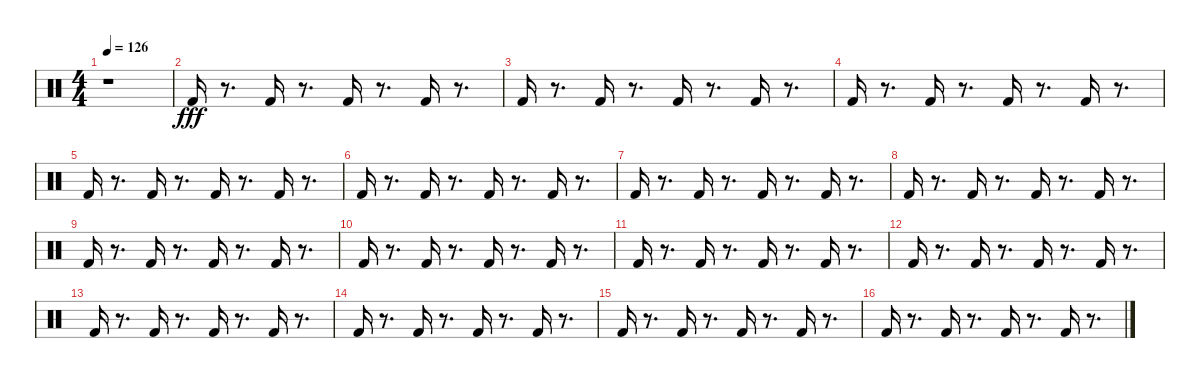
\track "" {instrument percussion}
\staff {score}
\articulation defaults
\ts (4 4)
\tempo 126
\clef neutral
\ks c
r.1{dy fff} |
"Kick (hit) 2".16 r.8{d} "Kick (hit) 2".16 r.8{d} "Kick (hit) 2".16 r.8{d} "Kick (hit) 2".16 r.8{d} |
"Kick (hit) 2".16 r.8{d} "Kick (hit) 2".16 r.8{d} "Kick (hit) 2".16 r.8{d} "Kick (hit) 2".16 r.8{d} |
"Kick (hit) 2".16 r.8{d} "Kick (hit) 2".16 r.8{d} "Kick (hit) 2".16 r.8{d} "Kick (hit) 2".16 r.8{d} |
"Kick (hit) 2".16 r.8{d} "Kick (hit) 2".16 r.8{d} "Kick (hit) 2".16 r.8{d} "Kick (hit) 2".16 r.8{d} |
"Kick (hit) 2".16 r.8{d} "Kick (hit) 2".16 r.8{d} "Kick (hit) 2".16 r.8{d} "Kick (hit) 2".16 r.8{d} |
"Kick (hit) 2".16 r.8{d} "Kick (hit) 2".16 r.8{d} "Kick (hit) 2".16 r.8{d} "Kick (hit) 2".16 r.8{d} |
"Kick (hit) 2".16 r.8{d} "Kick (hit) 2".16 r.8{d} "Kick (hit) 2".16 r.8{d} "Kick (hit) 2".16 r.8{d} |
"Kick (hit) 2".16 r.8{d} "Kick (hit) 2".16 r.8{d} "Kick (hit) 2".16 r.8{d} "Kick (hit) 2".16 r.8{d} |
"Kick (hit) 2".16 r.8{d} "Kick (hit) 2".16 r.8{d} "Kick (hit) 2".16 r.8{d} "Kick (hit) 2".16 r.8{d} |
"Kick (hit) 2".16 r.8{d} "Kick (hit) 2".16 r.8{d} "Kick (hit) 2".16 r.8{d} "Kick (hit) 2".16 r.8{d} |
"Kick (hit) 2".16 r.8{d} "Kick (hit) 2".16 r.8{d} "Kick (hit) 2".16 r.8{d} "Kick (hit) 2".16 r.8{d} |
"Kick (hit) 2".16 r.8{d} "Kick (hit) 2".16 r.8{d} "Kick (hit) 2".16 r.8{d} "Kick (hit) 2".16 r.8{d} |
"Kick (hit) 2".16 r.8{d} "Kick (hit) 2".16 r.8{d} "Kick (hit) 2".16 r.8{d} "Kick (hit) 2".16 r.8{d} |
"Kick (hit) 2".16 r.8{d} "Kick (hit) 2".16 r.8{d} "Kick (hit) 2".16 r.8{d} "Kick (hit) 2".16 r.8{d} |
"Kick (hit) 2".16 r.8{d} "Kick (hit) 2".16 r.8{d} "Kick (hit) 2".16 r.8{d} "Kick (hit) 2".16 r.8{d}
